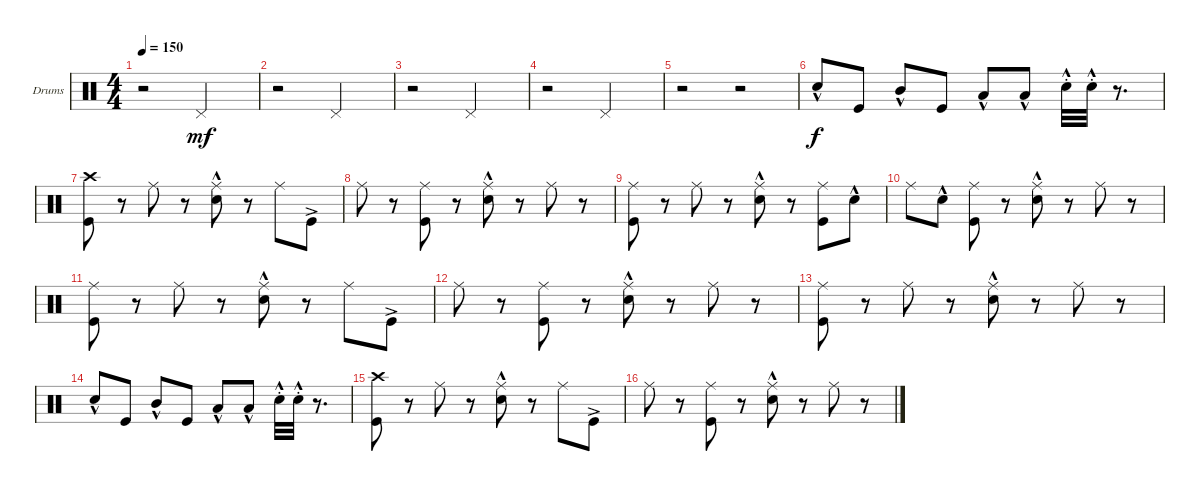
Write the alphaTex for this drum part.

\bracketExtendMode groupsimilarinstruments
\firstSystemTrackNameOrientation horizontal
\otherSystemsTrackNameOrientation horizontal
\track ("Drumkit" "Drums") {instrument percussion}
\staff {score}
\articulation defaults
\ts (4 4)
\tempo 150
\clef neutral
\ks c
r.2{dy mf} "Pedal Hi-Hat (hit)".2 |
r.2 "Pedal Hi-Hat (hit)".2 |
r.2 "Pedal Hi-Hat (hit)".2 |
r.2 "Pedal Hi-Hat (hit)".2 |
r.2 r.2 |
"Snare (hit) 2"{hac}.8{dy f} "Kick (hit)".8 "Mid Tom (hit)"{hac}.8 "Kick (hit)".8 "Low Tom (hit)"{hac}.8 "Low Tom (hit)"{hac}.8 "Snare (hit) 2"{hac st}.32 "Snare (hit) 2"{hac st}.32 r.8{d} |
("Kick (hit)" "Crash high (hit)").8 r.8 "Ride (middle)".8 r.8 ("Snare (hit) 2"{hac} "Ride (middle)").8 r.8 "Ride (middle)".8 "Kick (hit)"{ac}.8 |
"Ride (middle)".8 r.8 ("Kick (hit)" "Ride (middle)").8 r.8 ("Snare (hit) 2"{hac} "Ride (middle)").8 r.8 "Ride (middle)".8 r.8 |
("Kick (hit)" "Ride (middle)").8 r.8 "Ride (middle)".8 r.8 ("Snare (hit) 2"{hac} "Ride (middle)").8 r.8 ("Kick (hit)" "Ride (middle)").8 "Snare (hit) 2"{hac}.8 |
"Ride (middle)".8 "Snare (hit) 2"{hac}.8 ("Kick (hit)" "Ride (middle)").8 r.8 ("Snare (hit) 2"{hac} "Ride (middle)").8 r.8 "Ride (middle)".8 r.8 |
("Kick (hit)" "Ride (middle)").8 r.8 "Ride (middle)".8 r.8 ("Snare (hit) 2"{hac} "Ride (middle)").8 r.8 "Ride (middle)".8 "Kick (hit)"{ac}.8 |
"Ride (middle)".8 r.8 ("Kick (hit)" "Ride (middle)").8 r.8 ("Snare (hit) 2"{hac} "Ride (middle)").8 r.8 "Ride (middle)".8 r.8 |
("Kick (hit)" "Ride (middle)").8 r.8 "Ride (middle)".8 r.8 ("Snare (hit) 2"{hac} "Ride (middle)").8 r.8 "Ride (middle)".8 r.8 |
"Snare (hit) 2"{hac}.8 "Kick (hit)".8 "Mid Tom (hit)"{hac}.8 "Kick (hit)".8 "Low Tom (hit)"{hac}.8 "Low Tom (hit)"{hac}.8 "Snare (hit) 2"{hac st}.32 "Snare (hit) 2"{hac st}.32 r.8{d} |
("Kick (hit)" "Crash high (hit)").8 r.8 "Ride (middle)".8 r.8 ("Snare (hit) 2"{hac} "Ride (middle)").8 r.8 "Ride (middle)".8 "Kick (hit)"{ac}.8 |
"Ride (middle)".8 r.8 ("Kick (hit)" "Ride (middle)").8 r.8 ("Snare (hit) 2"{hac} "Ride (middle)").8 r.8 "Ride (middle)".8 r.8
